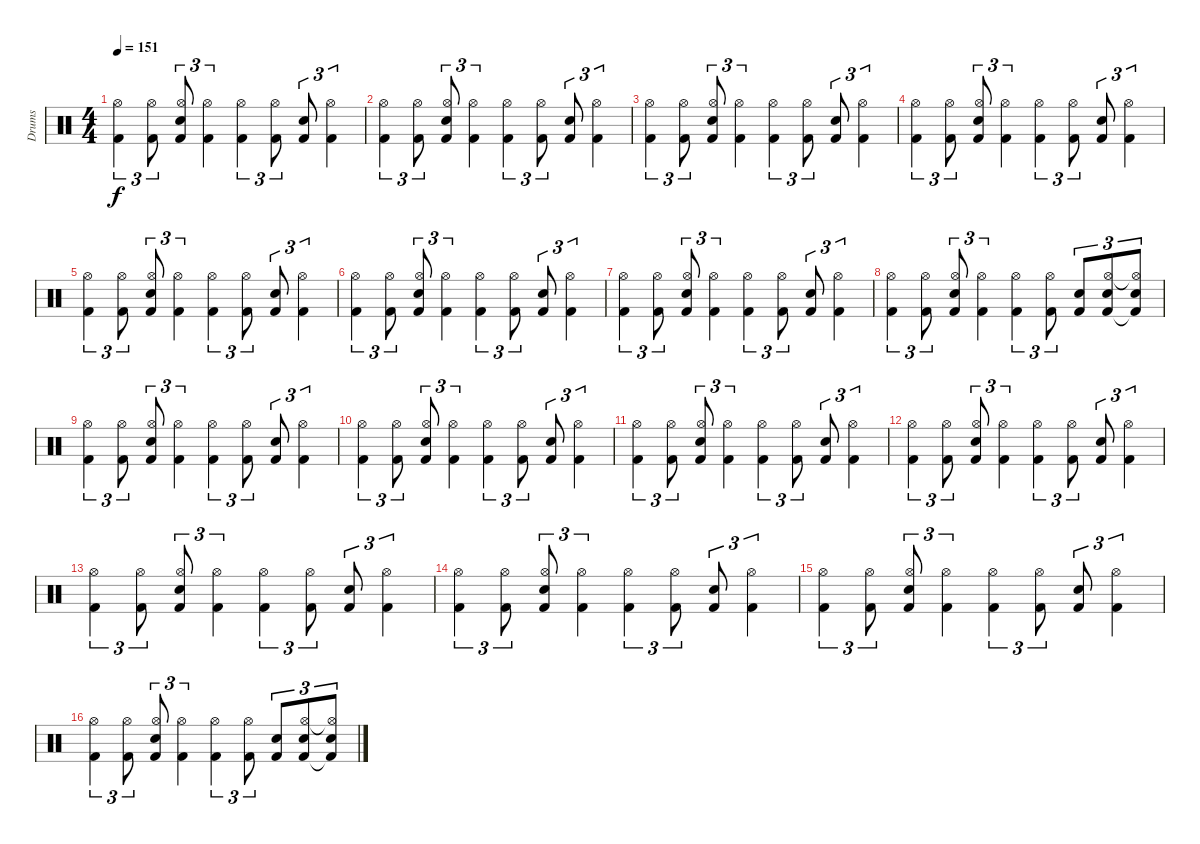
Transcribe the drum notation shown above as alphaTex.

\track ("Drums" "Drums") {instrument percussion}
\staff {score}
\articulation defaults
\ts (4 4)
\tempo 151
\clef neutral
\ks c
("Kick (hit) 2" "Hi-Hat (open)").4{tu (3 2) dy f} ("Kick (hit) 2" "Hi-Hat (open)").8{tu (3 2)} ("Electric Snare (hit)" "Kick (hit) 2" "Hi-Hat (open)").8{tu (3 2)} ("Kick (hit) 2" "Hi-Hat (open)").4{tu (3 2)} ("Kick (hit) 2" "Hi-Hat (open)").4{tu (3 2)} ("Kick (hit) 2" "Hi-Hat (open)").8{tu (3 2)} ("Electric Snare (hit)" "Kick (hit) 2").8{tu (3 2)} ("Kick (hit) 2" "Hi-Hat (open)").4{tu (3 2)} |
("Kick (hit) 2" "Hi-Hat (open)").4{tu (3 2)} ("Kick (hit) 2" "Hi-Hat (open)").8{tu (3 2)} ("Electric Snare (hit)" "Kick (hit) 2" "Hi-Hat (open)").8{tu (3 2)} ("Kick (hit) 2" "Hi-Hat (open)").4{tu (3 2)} ("Kick (hit) 2" "Hi-Hat (open)").4{tu (3 2)} ("Kick (hit) 2" "Hi-Hat (open)").8{tu (3 2)} ("Electric Snare (hit)" "Kick (hit) 2").8{tu (3 2)} ("Kick (hit) 2" "Hi-Hat (open)").4{tu (3 2)} |
("Kick (hit) 2" "Hi-Hat (open)").4{tu (3 2)} ("Kick (hit) 2" "Hi-Hat (open)").8{tu (3 2)} ("Electric Snare (hit)" "Kick (hit) 2" "Hi-Hat (open)").8{tu (3 2)} ("Kick (hit) 2" "Hi-Hat (open)").4{tu (3 2)} ("Kick (hit) 2" "Hi-Hat (open)").4{tu (3 2)} ("Kick (hit) 2" "Hi-Hat (open)").8{tu (3 2)} ("Electric Snare (hit)" "Kick (hit) 2").8{tu (3 2)} ("Kick (hit) 2" "Hi-Hat (open)").4{tu (3 2)} |
("Kick (hit) 2" "Hi-Hat (open)").4{tu (3 2)} ("Kick (hit) 2" "Hi-Hat (open)").8{tu (3 2)} ("Electric Snare (hit)" "Kick (hit) 2" "Hi-Hat (open)").8{tu (3 2)} ("Kick (hit) 2" "Hi-Hat (open)").4{tu (3 2)} ("Kick (hit) 2" "Hi-Hat (open)").4{tu (3 2)} ("Kick (hit) 2" "Hi-Hat (open)").8{tu (3 2)} ("Electric Snare (hit)" "Kick (hit) 2").8{tu (3 2)} ("Kick (hit) 2" "Hi-Hat (open)").4{tu (3 2)} |
("Kick (hit) 2" "Hi-Hat (open)").4{tu (3 2)} ("Kick (hit) 2" "Hi-Hat (open)").8{tu (3 2)} ("Electric Snare (hit)" "Kick (hit) 2" "Hi-Hat (open)").8{tu (3 2)} ("Kick (hit) 2" "Hi-Hat (open)").4{tu (3 2)} ("Kick (hit) 2" "Hi-Hat (open)").4{tu (3 2)} ("Kick (hit) 2" "Hi-Hat (open)").8{tu (3 2)} ("Electric Snare (hit)" "Kick (hit) 2").8{tu (3 2)} ("Kick (hit) 2" "Hi-Hat (open)").4{tu (3 2)} |
("Kick (hit) 2" "Hi-Hat (open)").4{tu (3 2)} ("Kick (hit) 2" "Hi-Hat (open)").8{tu (3 2)} ("Electric Snare (hit)" "Kick (hit) 2" "Hi-Hat (open)").8{tu (3 2)} ("Kick (hit) 2" "Hi-Hat (open)").4{tu (3 2)} ("Kick (hit) 2" "Hi-Hat (open)").4{tu (3 2)} ("Kick (hit) 2" "Hi-Hat (open)").8{tu (3 2)} ("Electric Snare (hit)" "Kick (hit) 2").8{tu (3 2)} ("Kick (hit) 2" "Hi-Hat (open)").4{tu (3 2)} |
("Kick (hit) 2" "Hi-Hat (open)").4{tu (3 2)} ("Kick (hit) 2" "Hi-Hat (open)").8{tu (3 2)} ("Electric Snare (hit)" "Kick (hit) 2" "Hi-Hat (open)").8{tu (3 2)} ("Kick (hit) 2" "Hi-Hat (open)").4{tu (3 2)} ("Kick (hit) 2" "Hi-Hat (open)").4{tu (3 2)} ("Kick (hit) 2" "Hi-Hat (open)").8{tu (3 2)} ("Electric Snare (hit)" "Kick (hit) 2").8{tu (3 2)} ("Kick (hit) 2" "Hi-Hat (open)").4{tu (3 2)} |
("Kick (hit) 2" "Hi-Hat (open)").4{tu (3 2)} ("Kick (hit) 2" "Hi-Hat (open)").8{tu (3 2)} ("Electric Snare (hit)" "Kick (hit) 2" "Hi-Hat (open)").8{tu (3 2)} ("Kick (hit) 2" "Hi-Hat (open)").4{tu (3 2)} ("Kick (hit) 2" "Hi-Hat (open)").4{tu (3 2)} ("Kick (hit) 2" "Hi-Hat (open)").8{tu (3 2)} ("Electric Snare (hit)" "Kick (hit) 2").8{tu (3 2)} ("Electric Snare (hit)" "Kick (hit) 2" "Hi-Hat (open)").8{tu (3 2)} ("Electric Snare (hit)" "Kick (hit) 2"{t} "Hi-Hat (open)"{t}).8{tu (3 2)} |
("Kick (hit) 2" "Hi-Hat (open)").4{tu (3 2)} ("Kick (hit) 2" "Hi-Hat (open)").8{tu (3 2)} ("Electric Snare (hit)" "Kick (hit) 2" "Hi-Hat (open)").8{tu (3 2)} ("Kick (hit) 2" "Hi-Hat (open)").4{tu (3 2)} ("Kick (hit) 2" "Hi-Hat (open)").4{tu (3 2)} ("Kick (hit) 2" "Hi-Hat (open)").8{tu (3 2)} ("Electric Snare (hit)" "Kick (hit) 2").8{tu (3 2)} ("Kick (hit) 2" "Hi-Hat (open)").4{tu (3 2)} |
("Kick (hit) 2" "Hi-Hat (open)").4{tu (3 2)} ("Kick (hit) 2" "Hi-Hat (open)").8{tu (3 2)} ("Electric Snare (hit)" "Kick (hit) 2" "Hi-Hat (open)").8{tu (3 2)} ("Kick (hit) 2" "Hi-Hat (open)").4{tu (3 2)} ("Kick (hit) 2" "Hi-Hat (open)").4{tu (3 2)} ("Kick (hit) 2" "Hi-Hat (open)").8{tu (3 2)} ("Electric Snare (hit)" "Kick (hit) 2").8{tu (3 2)} ("Kick (hit) 2" "Hi-Hat (open)").4{tu (3 2)} |
("Kick (hit) 2" "Hi-Hat (open)").4{tu (3 2)} ("Kick (hit) 2" "Hi-Hat (open)").8{tu (3 2)} ("Electric Snare (hit)" "Kick (hit) 2" "Hi-Hat (open)").8{tu (3 2)} ("Kick (hit) 2" "Hi-Hat (open)").4{tu (3 2)} ("Kick (hit) 2" "Hi-Hat (open)").4{tu (3 2)} ("Kick (hit) 2" "Hi-Hat (open)").8{tu (3 2)} ("Electric Snare (hit)" "Kick (hit) 2").8{tu (3 2)} ("Kick (hit) 2" "Hi-Hat (open)").4{tu (3 2)} |
("Kick (hit) 2" "Hi-Hat (open)").4{tu (3 2)} ("Kick (hit) 2" "Hi-Hat (open)").8{tu (3 2)} ("Electric Snare (hit)" "Kick (hit) 2" "Hi-Hat (open)").8{tu (3 2)} ("Kick (hit) 2" "Hi-Hat (open)").4{tu (3 2)} ("Kick (hit) 2" "Hi-Hat (open)").4{tu (3 2)} ("Kick (hit) 2" "Hi-Hat (open)").8{tu (3 2)} ("Electric Snare (hit)" "Kick (hit) 2").8{tu (3 2)} ("Kick (hit) 2" "Hi-Hat (open)").4{tu (3 2)} |
("Kick (hit) 2" "Hi-Hat (open)").4{tu (3 2)} ("Kick (hit) 2" "Hi-Hat (open)").8{tu (3 2)} ("Electric Snare (hit)" "Kick (hit) 2" "Hi-Hat (open)").8{tu (3 2)} ("Kick (hit) 2" "Hi-Hat (open)").4{tu (3 2)} ("Kick (hit) 2" "Hi-Hat (open)").4{tu (3 2)} ("Kick (hit) 2" "Hi-Hat (open)").8{tu (3 2)} ("Electric Snare (hit)" "Kick (hit) 2").8{tu (3 2)} ("Kick (hit) 2" "Hi-Hat (open)").4{tu (3 2)} |
("Kick (hit) 2" "Hi-Hat (open)").4{tu (3 2)} ("Kick (hit) 2" "Hi-Hat (open)").8{tu (3 2)} ("Electric Snare (hit)" "Kick (hit) 2" "Hi-Hat (open)").8{tu (3 2)} ("Kick (hit) 2" "Hi-Hat (open)").4{tu (3 2)} ("Kick (hit) 2" "Hi-Hat (open)").4{tu (3 2)} ("Kick (hit) 2" "Hi-Hat (open)").8{tu (3 2)} ("Electric Snare (hit)" "Kick (hit) 2").8{tu (3 2)} ("Kick (hit) 2" "Hi-Hat (open)").4{tu (3 2)} |
("Kick (hit) 2" "Hi-Hat (open)").4{tu (3 2)} ("Kick (hit) 2" "Hi-Hat (open)").8{tu (3 2)} ("Electric Snare (hit)" "Kick (hit) 2" "Hi-Hat (open)").8{tu (3 2)} ("Kick (hit) 2" "Hi-Hat (open)").4{tu (3 2)} ("Kick (hit) 2" "Hi-Hat (open)").4{tu (3 2)} ("Kick (hit) 2" "Hi-Hat (open)").8{tu (3 2)} ("Electric Snare (hit)" "Kick (hit) 2").8{tu (3 2)} ("Kick (hit) 2" "Hi-Hat (open)").4{tu (3 2)} |
("Kick (hit) 2" "Hi-Hat (open)").4{tu (3 2)} ("Kick (hit) 2" "Hi-Hat (open)").8{tu (3 2)} ("Electric Snare (hit)" "Kick (hit) 2" "Hi-Hat (open)").8{tu (3 2)} ("Kick (hit) 2" "Hi-Hat (open)").4{tu (3 2)} ("Kick (hit) 2" "Hi-Hat (open)").4{tu (3 2)} ("Kick (hit) 2" "Hi-Hat (open)").8{tu (3 2)} ("Electric Snare (hit)" "Kick (hit) 2").8{tu (3 2)} ("Electric Snare (hit)" "Kick (hit) 2" "Hi-Hat (open)").8{tu (3 2)} ("Electric Snare (hit)" "Kick (hit) 2"{t} "Hi-Hat (open)"{t}).8{tu (3 2)}
